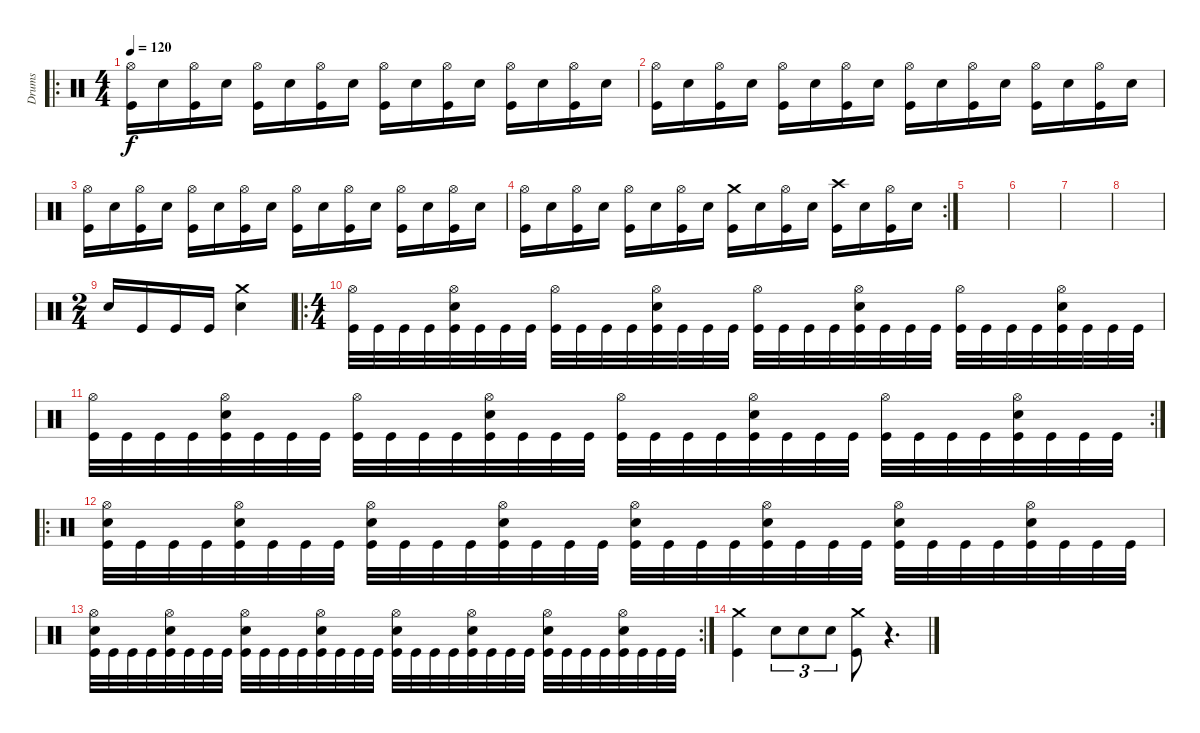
\track ("Drums" "Drums") {instrument percussion}
\staff {score}
\articulation defaults
\ro
\ts (4 4)
\tempo 120
\clef neutral
\ks c
("Hi-Hat (open)" "Kick (hit)").16{dy f} "Snare (hit) 2".16 ("Hi-Hat (open)" "Kick (hit)").16 "Snare (hit) 2".16 ("Hi-Hat (open)" "Kick (hit)").16 "Snare (hit) 2".16 ("Hi-Hat (open)" "Kick (hit)").16 "Snare (hit) 2".16 ("Hi-Hat (open)" "Kick (hit)").16 "Snare (hit) 2".16 ("Hi-Hat (open)" "Kick (hit)").16 "Snare (hit) 2".16 ("Hi-Hat (open)" "Kick (hit)").16 "Snare (hit) 2".16 ("Hi-Hat (open)" "Kick (hit)").16 "Snare (hit) 2".16 |
("Hi-Hat (open)" "Kick (hit)").16 "Snare (hit) 2".16 ("Hi-Hat (open)" "Kick (hit)").16 "Snare (hit) 2".16 ("Hi-Hat (open)" "Kick (hit)").16 "Snare (hit) 2".16 ("Hi-Hat (open)" "Kick (hit)").16 "Snare (hit) 2".16 ("Hi-Hat (open)" "Kick (hit)").16 "Snare (hit) 2".16 ("Hi-Hat (open)" "Kick (hit)").16 "Snare (hit) 2".16 ("Hi-Hat (open)" "Kick (hit)").16 "Snare (hit) 2".16 ("Hi-Hat (open)" "Kick (hit)").16 "Snare (hit) 2".16 |
("Hi-Hat (open)" "Kick (hit)").16 "Snare (hit) 2".16 ("Hi-Hat (open)" "Kick (hit)").16 "Snare (hit) 2".16 ("Hi-Hat (open)" "Kick (hit)").16 "Snare (hit) 2".16 ("Hi-Hat (open)" "Kick (hit)").16 "Snare (hit) 2".16 ("Hi-Hat (open)" "Kick (hit)").16 "Snare (hit) 2".16 ("Hi-Hat (open)" "Kick (hit)").16 "Snare (hit) 2".16 ("Hi-Hat (open)" "Kick (hit)").16 "Snare (hit) 2".16 ("Hi-Hat (open)" "Kick (hit)").16 "Snare (hit) 2".16 |
\rc 2
("Hi-Hat (open)" "Kick (hit)").16 "Snare (hit) 2".16 ("Hi-Hat (open)" "Kick (hit)").16 "Snare (hit) 2".16 ("Hi-Hat (open)" "Kick (hit)").16 "Snare (hit) 2".16 ("Hi-Hat (open)" "Kick (hit)").16 "Snare (hit) 2".16 ("Crash medium (hit)" "Kick (hit)").16 "Snare (hit) 2".16 ("Hi-Hat (open)" "Kick (hit)").16 "Snare (hit) 2".16 ("Crash high (hit)" "Kick (hit)").16 "Snare (hit) 2".16 ("Hi-Hat (open)" "Kick (hit)").16 "Snare (hit) 2".16 |
|
|
|
|
\ts (2 4)
"Snare (hit) 2".16 "Kick (hit)".16 "Kick (hit)".16 "Kick (hit)".16 ("Crash medium (hit)" "Snare (hit) 2").4 |
\ro
\ts (4 4)
("Hi-Hat (open)" "Kick (hit)").32 "Kick (hit)".32 "Kick (hit)".32 "Kick (hit)".32 ("Hi-Hat (open)" "Snare (hit) 2" "Kick (hit)").32 "Kick (hit)".32 "Kick (hit)".32 "Kick (hit)".32 ("Hi-Hat (open)" "Kick (hit)").32 "Kick (hit)".32 "Kick (hit)".32 "Kick (hit)".32 ("Hi-Hat (open)" "Snare (hit) 2" "Kick (hit)").32 "Kick (hit)".32 "Kick (hit)".32 "Kick (hit)".32 ("Hi-Hat (open)" "Kick (hit)").32 "Kick (hit)".32 "Kick (hit)".32 "Kick (hit)".32 ("Hi-Hat (open)" "Snare (hit) 2" "Kick (hit)").32 "Kick (hit)".32 "Kick (hit)".32 "Kick (hit)".32 ("Hi-Hat (open)" "Kick (hit)").32 "Kick (hit)".32 "Kick (hit)".32 "Kick (hit)".32 ("Hi-Hat (open)" "Snare (hit) 2" "Kick (hit)").32 "Kick (hit)".32 "Kick (hit)".32 "Kick (hit)".32 |
\rc 2
("Hi-Hat (open)" "Kick (hit)").32 "Kick (hit)".32 "Kick (hit)".32 "Kick (hit)".32 ("Hi-Hat (open)" "Snare (hit) 2" "Kick (hit)").32 "Kick (hit)".32 "Kick (hit)".32 "Kick (hit)".32 ("Hi-Hat (open)" "Kick (hit)").32 "Kick (hit)".32 "Kick (hit)".32 "Kick (hit)".32 ("Hi-Hat (open)" "Snare (hit) 2" "Kick (hit)").32 "Kick (hit)".32 "Kick (hit)".32 "Kick (hit)".32 ("Hi-Hat (open)" "Kick (hit)").32 "Kick (hit)".32 "Kick (hit)".32 "Kick (hit)".32 ("Hi-Hat (open)" "Snare (hit) 2" "Kick (hit)").32 "Kick (hit)".32 "Kick (hit)".32 "Kick (hit)".32 ("Hi-Hat (open)" "Kick (hit)").32 "Kick (hit)".32 "Kick (hit)".32 "Kick (hit)".32 ("Hi-Hat (open)" "Snare (hit) 2" "Kick (hit)").32 "Kick (hit)".32 "Kick (hit)".32 "Kick (hit)".32 |
\ro
("Hi-Hat (open)" "Snare (hit) 2" "Kick (hit)").32 "Kick (hit)".32 "Kick (hit)".32 "Kick (hit)".32 ("Hi-Hat (open)" "Snare (hit) 2" "Kick (hit)").32 "Kick (hit)".32 "Kick (hit)".32 "Kick (hit)".32 ("Hi-Hat (open)" "Snare (hit) 2" "Kick (hit)").32 "Kick (hit)".32 "Kick (hit)".32 "Kick (hit)".32 ("Hi-Hat (open)" "Snare (hit) 2" "Kick (hit)").32 "Kick (hit)".32 "Kick (hit)".32 "Kick (hit)".32 ("Hi-Hat (open)" "Snare (hit) 2" "Kick (hit)").32 "Kick (hit)".32 "Kick (hit)".32 "Kick (hit)".32 ("Hi-Hat (open)" "Snare (hit) 2" "Kick (hit)").32 "Kick (hit)".32 "Kick (hit)".32 "Kick (hit)".32 ("Hi-Hat (open)" "Snare (hit) 2" "Kick (hit)").32 "Kick (hit)".32 "Kick (hit)".32 "Kick (hit)".32 ("Hi-Hat (open)" "Snare (hit) 2" "Kick (hit)").32 "Kick (hit)".32 "Kick (hit)".32 "Kick (hit)".32 |
\rc 2
("Hi-Hat (open)" "Snare (hit) 2" "Kick (hit)").32 "Kick (hit)".32 "Kick (hit)".32 "Kick (hit)".32 ("Hi-Hat (open)" "Snare (hit) 2" "Kick (hit)").32 "Kick (hit)".32 "Kick (hit)".32 "Kick (hit)".32 ("Hi-Hat (open)" "Snare (hit) 2" "Kick (hit)").32 "Kick (hit)".32 "Kick (hit)".32 "Kick (hit)".32 ("Hi-Hat (open)" "Snare (hit) 2" "Kick (hit)").32 "Kick (hit)".32 "Kick (hit)".32 "Kick (hit)".32 ("Hi-Hat (open)" "Snare (hit) 2" "Kick (hit)").32 "Kick (hit)".32 "Kick (hit)".32 "Kick (hit)".32 ("Hi-Hat (open)" "Snare (hit) 2" "Kick (hit)").32 "Kick (hit)".32 "Kick (hit)".32 "Kick (hit)".32 ("Hi-Hat (open)" "Snare (hit) 2" "Kick (hit)").32 "Kick (hit)".32 "Kick (hit)".32 "Kick (hit)".32 ("Hi-Hat (open)" "Snare (hit) 2" "Kick (hit)").32 "Kick (hit)".32 "Kick (hit)".32 "Kick (hit)".32 |
("Crash medium (hit)" "Kick (hit)").4 "Snare (hit) 2".8{tu (3 2)} "Snare (hit) 2".8{tu (3 2)} "Snare (hit) 2".8{tu (3 2)} ("Crash medium (hit)" "Kick (hit)").8 r.4{d volume 0}
